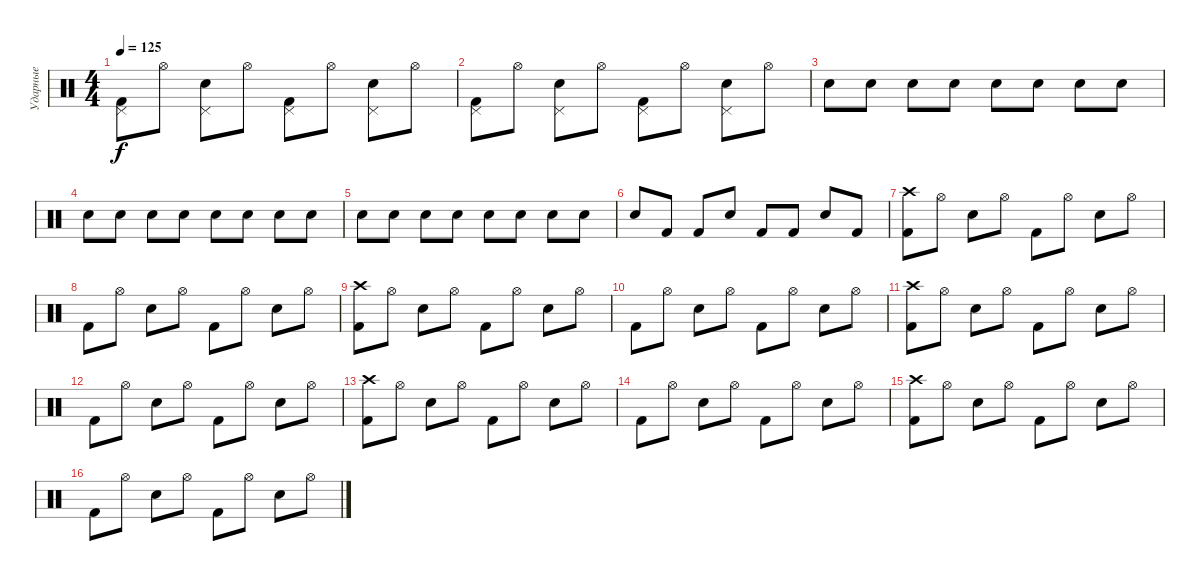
\track ("Ударные" "Ударные") {instrument percussion}
\staff {score}
\articulation defaults
\ts (4 4)
\tempo 125
\clef neutral
\ks c
("Pedal Hi-Hat (hit)" "Kick (hit) 2").8{dy f} "Hi-Hat (open)".8 ("Pedal Hi-Hat (hit)" "Snare (hit) 2").8 "Hi-Hat (open)".8 ("Pedal Hi-Hat (hit)" "Kick (hit) 2").8 "Hi-Hat (open)".8 ("Pedal Hi-Hat (hit)" "Snare (hit) 2").8 "Hi-Hat (open)".8 |
("Pedal Hi-Hat (hit)" "Kick (hit) 2").8 "Hi-Hat (open)".8 ("Pedal Hi-Hat (hit)" "Snare (hit) 2").8 "Hi-Hat (open)".8 ("Pedal Hi-Hat (hit)" "Kick (hit) 2").8 "Hi-Hat (open)".8 ("Pedal Hi-Hat (hit)" "Snare (hit) 2").8 "Hi-Hat (open)".8 |
"Snare (hit) 2".8 "Snare (hit) 2".8 "Snare (hit) 2".8 "Snare (hit) 2".8 "Snare (hit) 2".8 "Snare (hit) 2".8 "Snare (hit) 2".8 "Snare (hit) 2".8 |
"Snare (hit) 2".8 "Snare (hit) 2".8 "Snare (hit) 2".8 "Snare (hit) 2".8 "Snare (hit) 2".8 "Snare (hit) 2".8 "Snare (hit) 2".8 "Snare (hit) 2".8 |
"Snare (hit) 2".8 "Snare (hit) 2".8 "Snare (hit) 2".8 "Snare (hit) 2".8 "Snare (hit) 2".8 "Snare (hit) 2".8 "Snare (hit) 2".8 "Snare (hit) 2".8 |
"Snare (hit) 2".8 "Kick (hit) 2".8 "Kick (hit) 2".8 "Snare (hit) 2".8 "Kick (hit) 2".8 "Kick (hit) 2".8 "Snare (hit) 2".8 "Kick (hit) 2".8 |
("Crash high (hit)" "Kick (hit) 2").8 "Hi-Hat (open)".8 "Snare (hit) 2".8 "Hi-Hat (open)".8 "Kick (hit) 2".8 "Hi-Hat (open)".8 "Snare (hit) 2".8 "Hi-Hat (open)".8 |
"Kick (hit) 2".8 "Hi-Hat (open)".8 "Snare (hit) 2".8 "Hi-Hat (open)".8 "Kick (hit) 2".8 "Hi-Hat (open)".8 "Snare (hit) 2".8 "Hi-Hat (open)".8 |
("Crash high (hit)" "Kick (hit) 2").8 "Hi-Hat (open)".8 "Snare (hit) 2".8 "Hi-Hat (open)".8 "Kick (hit) 2".8 "Hi-Hat (open)".8 "Snare (hit) 2".8 "Hi-Hat (open)".8 |
"Kick (hit) 2".8 "Hi-Hat (open)".8 "Snare (hit) 2".8 "Hi-Hat (open)".8 "Kick (hit) 2".8 "Hi-Hat (open)".8 "Snare (hit) 2".8 "Hi-Hat (open)".8 |
("Crash high (hit)" "Kick (hit) 2").8 "Hi-Hat (open)".8 "Snare (hit) 2".8 "Hi-Hat (open)".8 "Kick (hit) 2".8 "Hi-Hat (open)".8 "Snare (hit) 2".8 "Hi-Hat (open)".8 |
"Kick (hit) 2".8 "Hi-Hat (open)".8 "Snare (hit) 2".8 "Hi-Hat (open)".8 "Kick (hit) 2".8 "Hi-Hat (open)".8 "Snare (hit) 2".8 "Hi-Hat (open)".8 |
("Crash high (hit)" "Kick (hit) 2").8 "Hi-Hat (open)".8 "Snare (hit) 2".8 "Hi-Hat (open)".8 "Kick (hit) 2".8 "Hi-Hat (open)".8 "Snare (hit) 2".8 "Hi-Hat (open)".8 |
"Kick (hit) 2".8 "Hi-Hat (open)".8 "Snare (hit) 2".8 "Hi-Hat (open)".8 "Kick (hit) 2".8 "Hi-Hat (open)".8 "Snare (hit) 2".8 "Hi-Hat (open)".8 |
("Crash high (hit)" "Kick (hit) 2").8 "Hi-Hat (open)".8 "Snare (hit) 2".8 "Hi-Hat (open)".8 "Kick (hit) 2".8 "Hi-Hat (open)".8 "Snare (hit) 2".8 "Hi-Hat (open)".8 |
"Kick (hit) 2".8 "Hi-Hat (open)".8 "Snare (hit) 2".8 "Hi-Hat (open)".8 "Kick (hit) 2".8 "Hi-Hat (open)".8 "Snare (hit) 2".8 "Hi-Hat (open)".8
